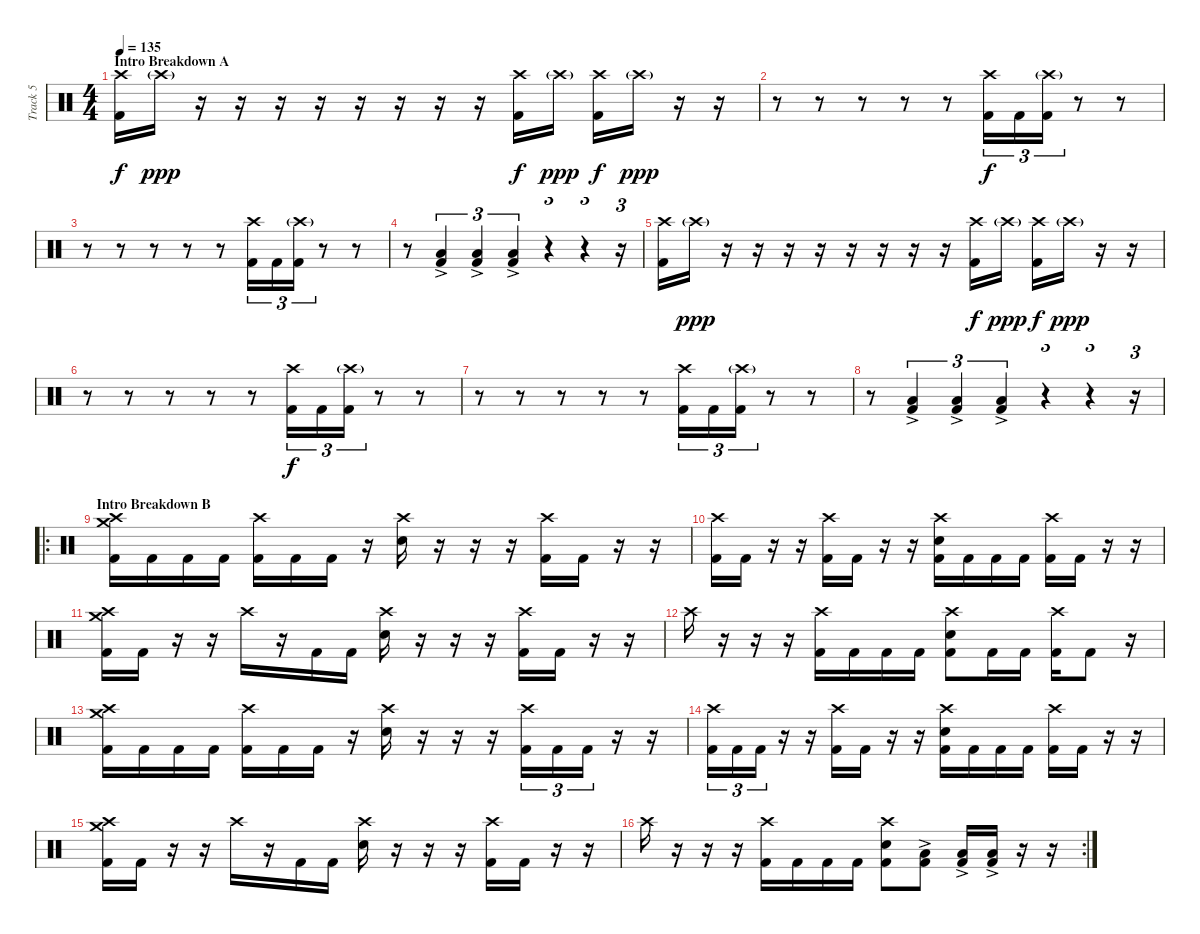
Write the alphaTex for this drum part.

\track ("Track 5" "Track 5") {instrument percussion}
\staff {score}
\articulation defaults
\ts (4 4)
\section ("" "Intro Breakdown A")
\tempo 135
\clef neutral
\ks c
("Crash high (hit)" "Kick (hit) 2").16{dy f} "Crash high (hit)"{g}.16{dy ppp} r.16 r.16 r.16 r.16 r.16 r.16 r.16 r.16 ("Crash high (hit)" "Kick (hit) 2").16{dy f} "Crash high (hit)"{g}.16{dy ppp} ("Crash high (hit)" "Kick (hit) 2").16{dy f} "Crash high (hit)"{g}.16{dy ppp} r.16 r.16 |
r.8 r.8 r.8 r.8 r.8 ("Crash high (hit)" "Kick (hit) 2").16{tu (3 2) dy f} "Kick (hit) 2".16{tu (3 2)} ("Crash high (hit)"{g} "Kick (hit) 2").16{tu (3 2)} r.8 r.8 |
r.8 r.8 r.8 r.8 r.8 ("Crash high (hit)" "Kick (hit) 2").16{tu (3 2)} "Kick (hit) 2".16{tu (3 2)} ("Crash high (hit)"{g} "Kick (hit) 2").16{tu (3 2)} r.8 r.8 |
r.8 ("Low Floor Tom (hit)"{ac} "Kick (hit) 2").4{tu (3 2)} ("Low Floor Tom (hit)"{ac} "Kick (hit) 2").4{tu (3 2)} ("Low Floor Tom (hit)"{ac} "Kick (hit) 2").4{tu (3 2)} r.4{tu (3 2)} r.4{tu (3 2)} r.16{tu (3 2)} |
("Crash high (hit)" "Kick (hit) 2").16 "Crash high (hit)"{g}.16{dy ppp} r.16 r.16 r.16 r.16 r.16 r.16 r.16 r.16 ("Crash high (hit)" "Kick (hit) 2").16{dy f} "Crash high (hit)"{g}.16{dy ppp} ("Crash high (hit)" "Kick (hit) 2").16{dy f} "Crash high (hit)"{g}.16{dy ppp} r.16 r.16 |
r.8 r.8 r.8 r.8 r.8 ("Crash high (hit)" "Kick (hit) 2").16{tu (3 2) dy f} "Kick (hit) 2".16{tu (3 2)} ("Crash high (hit)"{g} "Kick (hit) 2").16{tu (3 2)} r.8 r.8 |
r.8 r.8 r.8 r.8 r.8 ("Crash high (hit)" "Kick (hit) 2").16{tu (3 2)} "Kick (hit) 2".16{tu (3 2)} ("Crash high (hit)"{g} "Kick (hit) 2").16{tu (3 2)} r.8 r.8 |
r.8 ("Low Floor Tom (hit)"{ac} "Kick (hit) 2").4{tu (3 2)} ("Low Floor Tom (hit)"{ac} "Kick (hit) 2").4{tu (3 2)} ("Low Floor Tom (hit)"{ac} "Kick (hit) 2").4{tu (3 2)} r.4{tu (3 2)} r.4{tu (3 2)} r.16{tu (3 2)} |
\ro
\section ("" "Intro Breakdown B")
("Crash medium (hit)" "Crash high (hit)" "Kick (hit) 2").16 "Kick (hit) 2".16 "Kick (hit) 2".16 "Kick (hit) 2".16 ("Crash high (hit)" "Kick (hit) 2").16 "Kick (hit) 2".16 "Kick (hit) 2".16 r.16 ("Electric Snare (hit)" "Crash high (hit)").16 r.16 r.16 r.16 ("Crash high (hit)" "Kick (hit) 2").16 "Kick (hit) 2".16 r.16 r.16 |
("Crash high (hit)" "Kick (hit) 2").16 "Kick (hit) 2".16 r.16 r.16 ("Crash high (hit)" "Kick (hit) 2").16 "Kick (hit) 2".16 r.16 r.16 ("Electric Snare (hit)" "Crash high (hit)" "Kick (hit) 2").16 "Kick (hit) 2".16 "Kick (hit) 2".16 "Kick (hit) 2".16 ("Crash high (hit)" "Kick (hit) 2").16 "Kick (hit) 2".16 r.16 r.16 |
("Crash medium (hit)" "Crash high (hit)" "Kick (hit) 2").16 "Kick (hit) 2".16 r.16 r.16 "Crash high (hit)".16 r.16 "Kick (hit) 2".16 "Kick (hit) 2".16 ("Electric Snare (hit)" "Crash high (hit)").16 r.16 r.16 r.16 ("Crash high (hit)" "Kick (hit) 2").16 "Kick (hit) 2".16 r.16 r.16 |
"Crash high (hit)".16 r.16 r.16 r.16 ("Crash high (hit)" "Kick (hit) 2").16 "Kick (hit) 2".16 "Kick (hit) 2".16 "Kick (hit) 2".16 ("Electric Snare (hit)" "Crash high (hit)" "Kick (hit) 2").8 "Kick (hit) 2".16 "Kick (hit) 2".16 ("Crash high (hit)" "Kick (hit) 2").16 "Kick (hit) 2".8 r.16 |
("Crash medium (hit)" "Crash high (hit)" "Kick (hit) 2").16 "Kick (hit) 2".16 "Kick (hit) 2".16 "Kick (hit) 2".16 ("Crash high (hit)" "Kick (hit) 2").16 "Kick (hit) 2".16 "Kick (hit) 2".16 r.16 ("Electric Snare (hit)" "Crash high (hit)").16 r.16 r.16 r.16 ("Crash high (hit)" "Kick (hit) 2").16{tu (3 2)} "Kick (hit) 2".16{tu (3 2)} "Kick (hit) 2".16{tu (3 2)} r.16 r.16 |
("Crash high (hit)" "Kick (hit) 2").16{tu (3 2)} "Kick (hit) 2".16{tu (3 2)} "Kick (hit) 2".16{tu (3 2)} r.16 r.16 ("Crash high (hit)" "Kick (hit) 2").16 "Kick (hit) 2".16 r.16 r.16 ("Electric Snare (hit)" "Crash high (hit)" "Kick (hit) 2").16 "Kick (hit) 2".16 "Kick (hit) 2".16 "Kick (hit) 2".16 ("Crash high (hit)" "Kick (hit) 2").16 "Kick (hit) 2".16 r.16 r.16 |
("Crash medium (hit)" "Crash high (hit)" "Kick (hit) 2").16 "Kick (hit) 2".16 r.16 r.16 "Crash high (hit)".16 r.16 "Kick (hit) 2".16 "Kick (hit) 2".16 ("Electric Snare (hit)" "Crash high (hit)").16 r.16 r.16 r.16 ("Crash high (hit)" "Kick (hit) 2").16 "Kick (hit) 2".16 r.16 r.16 |
\rc 2 "Crash high (hit)".16
r.16 r.16 r.16 ("Crash high (hit)" "Kick (hit) 2").16 "Kick (hit) 2".16 "Kick (hit) 2".16 "Kick (hit) 2".16 ("Electric Snare (hit)" "Crash high (hit)" "Kick (hit) 2").8 ("Low Floor Tom (hit)"{ac} "Kick (hit) 2").8 ("Low Floor Tom (hit)"{ac} "Kick (hit) 2").16 ("Low Floor Tom (hit)"{ac} "Kick (hit) 2").16 r.16 r.16
